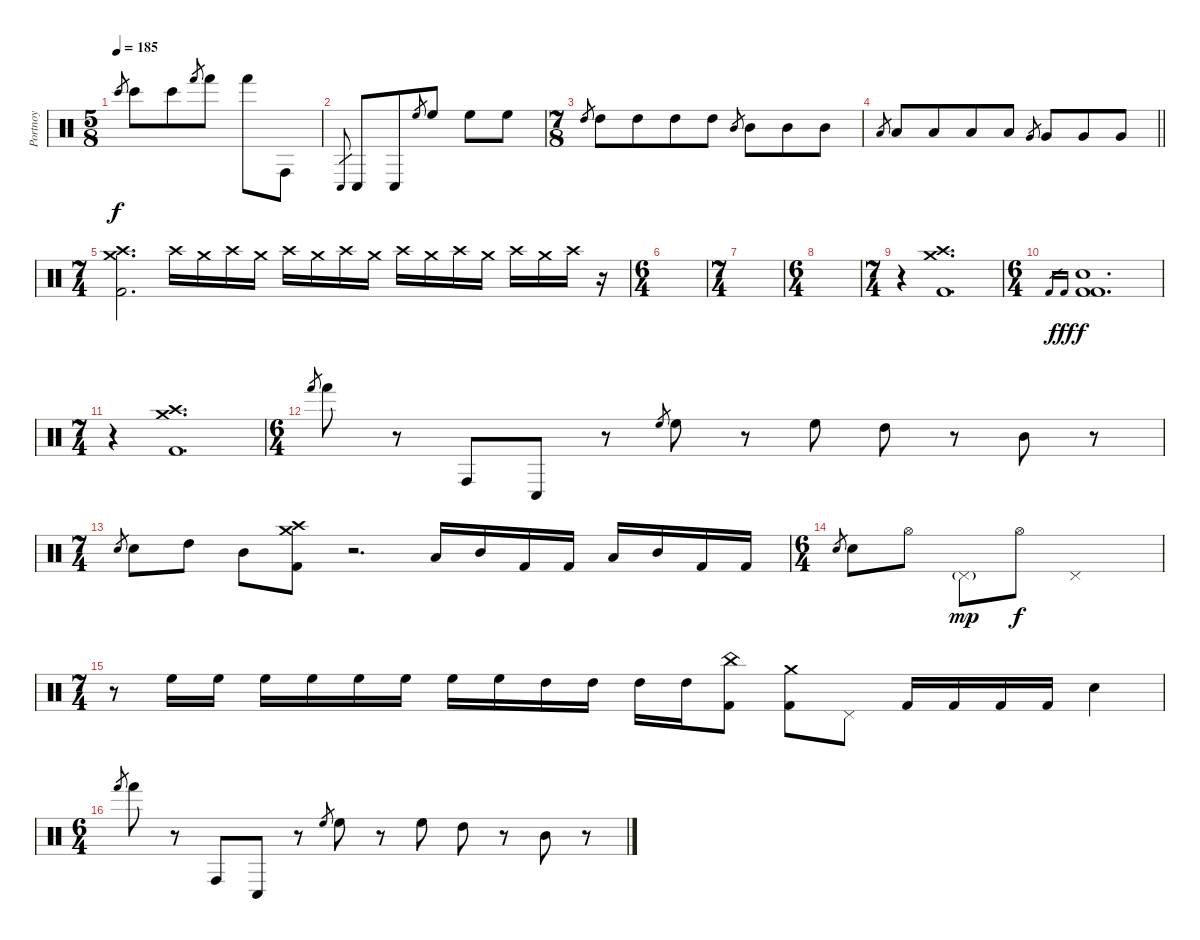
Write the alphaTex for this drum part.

\track ("Portnoy" "Portnoy") {instrument percussion}
\staff {score}
\articulation defaults
\ts (5 8)
\tempo 185
\clef neutral
\ks c "Bongo High (hit)".8{gr dy f} "Bongo High (hit)".8 "Bongo High (hit)".8 "Hand (hit)".8{gr} "Hand (hit)".8 "Hand (hit)".8 "Conga high (hit)".8
|
"Conga low (hit)".8{gr} "Conga low (hit)".8 "Conga low (hit)".8 "High Floor Tom (hit)".8{gr} "High Floor Tom (hit)".8 "High Floor Tom (hit)".8 "High Floor Tom (hit)".8 |
\ts (7 8)
"High Tom (hit)".8{gr} "High Tom (hit)".8 "High Tom (hit)".8 "High Tom (hit)".8 "High Tom (hit)".8 "Mid Tom (hit)".8{gr} "Mid Tom (hit)".8 "Mid Tom (hit)".8 "Mid Tom (hit)".8 |
\barLineRight lightlight "Low Tom (hit)".8{gr} "Low Tom (hit)".8 "Low Tom (hit)".8 "Low Tom (hit)".8 "Low Tom (hit)".8 "Very Low Tom (hit)".8{gr} "Very Low Tom (hit)".8 "Very Low Tom (hit)".8 "Very Low Tom (hit)".8
|
\ts (7 4)
("Crash medium (hit)" "Crash high (hit)" "Kick (hit) 2").2{d} "Crash high (hit)".16{volume 3} "Crash medium (hit)".16{volume 16} "Crash high (hit)".16 "Crash medium (hit)".16 "Crash high (hit)".16 "Crash medium (hit)".16 "Crash high (hit)".16 "Crash medium (hit)".16 "Crash high (hit)".16 "Crash medium (hit)".16 "Crash high (hit)".16 "Crash medium (hit)".16 "Crash high (hit)".16 "Crash medium (hit)".16 "Crash high (hit)".16 r.16 |
\ts (6 4)
|
\ts (7 4)
|
\ts (6 4)
|
\ts (7 4)
r.4 ("Crash high (hit)" "Crash medium (hit)" "Kick (hit) 2").1{d} |
\ts (6 4)
"Kick (hit) 2".16{gr} "Kick (hit) 2".16{gr dy fff} ("Electric Snare (hit)" "Kick (hit) 2" "Kick (hit) 2").1{d dy f} |
\ts (7 4)
r.4 ("Crash high (hit)" "Crash medium (hit)" "Kick (hit) 2").1{d} |
\ts (6 4)
"Hand (hit)".8{gr} "Hand (hit)".8 r.8 "Conga high (hit)".8 "Conga low (hit)".8 r.8 "High Floor Tom (hit)".8{gr} "High Floor Tom (hit)".8 r.8 "High Floor Tom (hit)".8 "High Tom (hit)".8 r.8 "Mid Tom (hit)".8 r.8 |
\ts (7 4)
"Electric Snare (hit)".8{gr} "Electric Snare (hit)".8 "High Tom (hit)".8 "Mid Tom (hit)".8 ("Crash high (hit)" "Crash medium (hit)" "Kick (hit) 2").8 r.2{d} "Low Tom (hit)".16 "Mid Tom (hit)".16 "Kick (hit) 2".16 "Kick (hit) 2".16 "Low Tom (hit)".16 "Mid Tom (hit)".16 "Kick (hit) 2".16 "Kick (hit) 2".16 |
\ts (6 4)
"Electric Snare (hit)".8{gr} "Electric Snare (hit)".8 "Hi-Hat (open)".8 "Pedal Hi-Hat (hit)"{g}.8{dy mp} "Hi-Hat (open)".8{dy f} "Pedal Hi-Hat (hit)".1 |
\ts (7 4)
r.8 "High Floor Tom (hit)".16 "High Floor Tom (hit)".16 "High Floor Tom (hit)".16 "High Floor Tom (hit)".16 "High Floor Tom (hit)".16 "High Floor Tom (hit)".16 "High Floor Tom (hit)".16 "High Floor Tom (hit)".16 "High Tom (hit)".16 "High Tom (hit)".16 "High Tom (hit)".16 "High Tom (hit)".16 ("China (hit)" "Kick (hit) 2").8 ("Crash medium (hit)" "Kick (hit) 2").8 "Pedal Hi-Hat (hit)".8 "Kick (hit) 2".16 "Kick (hit) 2".16 "Kick (hit) 2".16 "Kick (hit) 2".16 "Electric Snare (hit)".4 |
\ts (6 4)
"Hand (hit)".8{gr} "Hand (hit)".8 r.8 "Conga high (hit)".8 "Conga low (hit)".8 r.8 "High Floor Tom (hit)".8{gr} "High Floor Tom (hit)".8 r.8 "High Floor Tom (hit)".8 "High Tom (hit)".8 r.8 "Mid Tom (hit)".8 r.8
